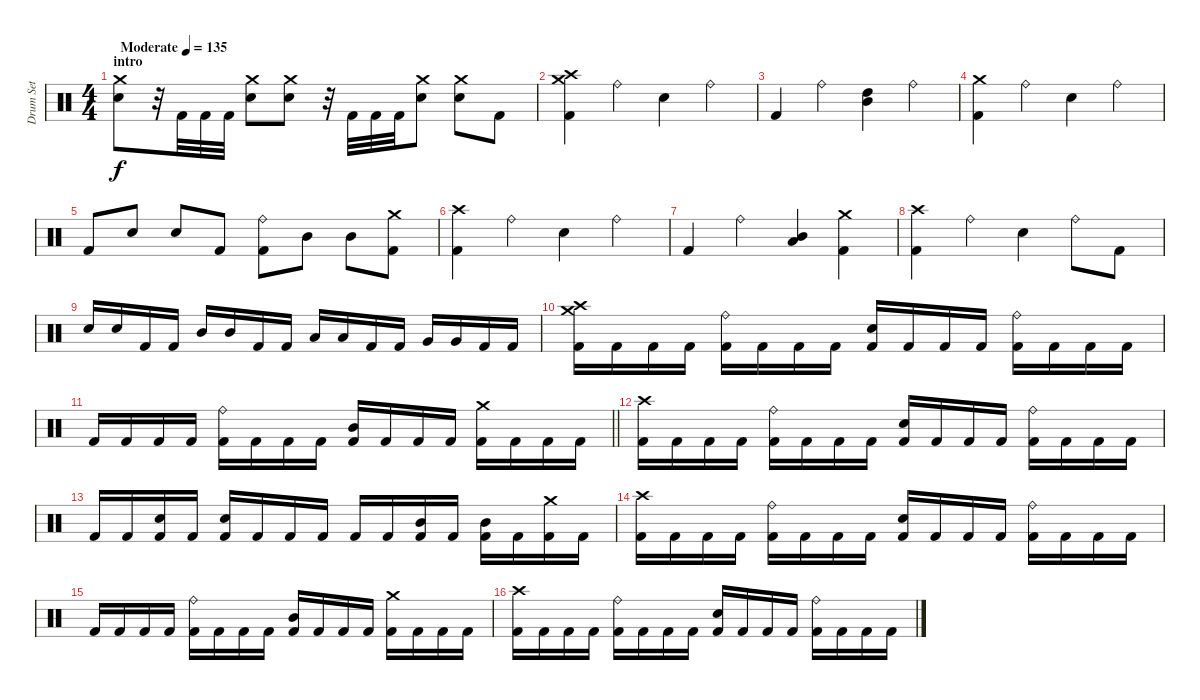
\track ("Drum Set" "Drum Set") {instrument percussion}
\staff {score}
\articulation defaults
\ts (4 4)
\section ("" "intro")
\tempo (135 "Moderate")
\clef neutral
\ks c
("Crash medium (hit)" "Snare (hit) 2").8{dy f} r.32 "Kick (hit) 2".32 "Kick (hit) 2".32 "Kick (hit) 2".32 ("Crash medium (hit)" "Snare (hit) 2").8 ("Crash medium (hit)" "Snare (hit) 2").8 r.32 "Kick (hit) 2".32 "Kick (hit) 2".32 "Kick (hit) 2".32 ("Crash medium (hit)" "Snare (hit) 2").8 ("Crash medium (hit)" "Snare (hit) 2").8 "Kick (hit) 2".8 |
("Crash medium (hit)" "Crash high (hit)" "Kick (hit) 2").4 "Ride (bell)".4 "Snare (hit) 2".4 "Ride (bell)".4 |
"Kick (hit) 2".4 "Ride (bell)".4 ("High Tom (hit)" "Mid Tom (hit)").4 "Ride (bell)".4 |
("Crash medium (hit)" "Kick (hit) 2").4 "Ride (bell)".4 "Snare (hit) 2".4 "Ride (bell)".4 |
"Kick (hit) 2".8 "Snare (hit) 2".8 "Snare (hit) 2".8 "Kick (hit) 2".8 ("Ride (bell)" "Kick (hit) 2").8 "Mid Tom (hit)".8 "Mid Tom (hit)".8 ("Crash medium (hit)" "Kick (hit) 2").8 |
("Crash high (hit)" "Kick (hit) 2").4 "Ride (bell)".4 "Snare (hit) 2".4 "Ride (bell)".4 |
"Kick (hit) 2".4 "Ride (bell)".4 ("Low Tom (hit)" "Mid Tom (hit)").4 ("Crash medium (hit)" "Kick (hit) 2").4 |
("Crash high (hit)" "Kick (hit) 2").4 "Ride (bell)".4 "Snare (hit) 2".4 "Ride (bell)".8 "Kick (hit) 2".8 |
"Snare (hit) 2".16 "Snare (hit) 2".16 "Kick (hit) 2".16 "Kick (hit) 2".16 "Mid Tom (hit)".16 "Mid Tom (hit)".16 "Kick (hit) 2".16 "Kick (hit) 2".16 "Low Tom (hit)".16 "Low Tom (hit)".16 "Kick (hit) 2".16 "Kick (hit) 2".16 "Very Low Tom (hit)".16 "Very Low Tom (hit)".16 "Kick (hit) 2".16 "Kick (hit) 2".16 |
("Crash high (hit)" "Crash medium (hit)" "Kick (hit) 2").16 "Kick (hit) 2".16 "Kick (hit) 2".16 "Kick (hit) 2".16 ("Ride (bell)" "Kick (hit) 2").16 "Kick (hit) 2".16 "Kick (hit) 2".16 "Kick (hit) 2".16 ("Snare (hit) 2" "Kick (hit) 2").16 "Kick (hit) 2".16 "Kick (hit) 2".16 "Kick (hit) 2".16 ("Ride (bell)" "Kick (hit) 2").16 "Kick (hit) 2".16 "Kick (hit) 2".16 "Kick (hit) 2".16 |
\barLineRight lightlight "Kick (hit) 2".16 "Kick (hit) 2".16 "Kick (hit) 2".16 "Kick (hit) 2".16
("Ride (bell)" "Kick (hit) 2").16 "Kick (hit) 2".16 "Kick (hit) 2".16 "Kick (hit) 2".16 ("Mid Tom (hit)" "Kick (hit) 2").16 "Kick (hit) 2".16 "Kick (hit) 2".16 "Kick (hit) 2".16 ("Crash medium (hit)" "Kick (hit) 2").16 "Kick (hit) 2".16 "Kick (hit) 2".16 "Kick (hit) 2".16 |
("Crash high (hit)" "Kick (hit) 2").16 "Kick (hit) 2".16 "Kick (hit) 2".16 "Kick (hit) 2".16 ("Ride (bell)" "Kick (hit) 2").16 "Kick (hit) 2".16 "Kick (hit) 2".16 "Kick (hit) 2".16 ("Snare (hit) 2" "Kick (hit) 2").16 "Kick (hit) 2".16 "Kick (hit) 2".16 "Kick (hit) 2".16 ("Ride (bell)" "Kick (hit) 2").16 "Kick (hit) 2".16 "Kick (hit) 2".16 "Kick (hit) 2".16 |
"Kick (hit) 2".16 "Kick (hit) 2".16 ("Snare (hit) 2" "Kick (hit) 2").16 "Kick (hit) 2".16 ("Snare (hit) 2" "Kick (hit) 2").16 "Kick (hit) 2".16 "Kick (hit) 2".16 "Kick (hit) 2".16 "Kick (hit) 2".16 "Kick (hit) 2".16 ("Mid Tom (hit)" "Kick (hit) 2").16 "Kick (hit) 2".16 ("Mid Tom (hit)" "Kick (hit) 2").16 "Kick (hit) 2".16 ("Crash medium (hit)" "Kick (hit) 2").16 "Kick (hit) 2".16 |
("Crash high (hit)" "Kick (hit) 2").16 "Kick (hit) 2".16 "Kick (hit) 2".16 "Kick (hit) 2".16 ("Ride (bell)" "Kick (hit) 2").16 "Kick (hit) 2".16 "Kick (hit) 2".16 "Kick (hit) 2".16 ("Snare (hit) 2" "Kick (hit) 2").16 "Kick (hit) 2".16 "Kick (hit) 2".16 "Kick (hit) 2".16 ("Ride (bell)" "Kick (hit) 2").16 "Kick (hit) 2".16 "Kick (hit) 2".16 "Kick (hit) 2".16 |
"Kick (hit) 2".16 "Kick (hit) 2".16 "Kick (hit) 2".16 "Kick (hit) 2".16 ("Ride (bell)" "Kick (hit) 2").16 "Kick (hit) 2".16 "Kick (hit) 2".16 "Kick (hit) 2".16 ("Mid Tom (hit)" "Kick (hit) 2").16 "Kick (hit) 2".16 "Kick (hit) 2".16 "Kick (hit) 2".16 ("Crash medium (hit)" "Kick (hit) 2").16 "Kick (hit) 2".16 "Kick (hit) 2".16 "Kick (hit) 2".16 |
("Crash high (hit)" "Kick (hit) 2").16 "Kick (hit) 2".16 "Kick (hit) 2".16 "Kick (hit) 2".16 ("Ride (bell)" "Kick (hit) 2").16 "Kick (hit) 2".16 "Kick (hit) 2".16 "Kick (hit) 2".16 ("Snare (hit) 2" "Kick (hit) 2").16 "Kick (hit) 2".16 "Kick (hit) 2".16 "Kick (hit) 2".16 ("Ride (bell)" "Kick (hit) 2").16 "Kick (hit) 2".16 "Kick (hit) 2".16 "Kick (hit) 2".16
